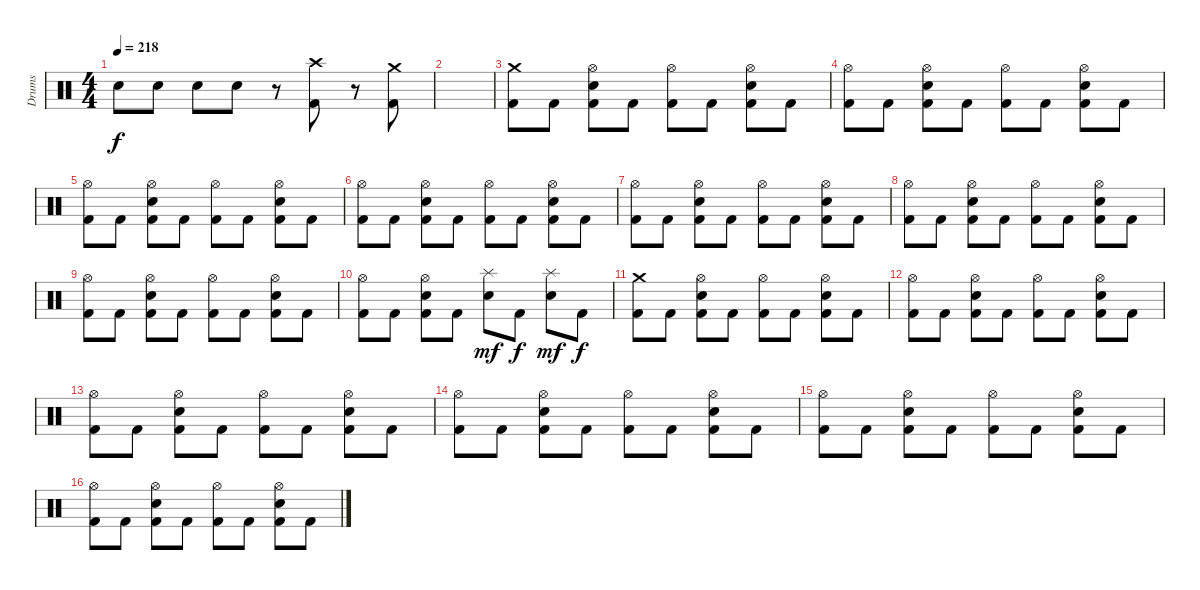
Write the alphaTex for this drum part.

\track ("Drums" "Drums") {instrument percussion}
\staff {score}
\articulation defaults
\ts (4 4)
\tempo 218
\clef neutral
\ks c "Snare (hit) 2".8{dy f} "Snare (hit) 2".8 "Snare (hit) 2".8 "Snare (hit) 2".8
r.8 ("Crash high (hit)" "Kick (hit) 2").8 r.8 ("Crash medium (hit)" "Kick (hit) 2").8 |
|
("Crash medium (hit)" "Kick (hit) 2").8 "Kick (hit) 2".8 ("Hi-Hat (open)" "Snare (hit) 2" "Kick (hit) 2").8 "Kick (hit) 2".8 ("Hi-Hat (open)" "Kick (hit) 2").8 "Kick (hit) 2".8 ("Hi-Hat (open)" "Snare (hit) 2" "Kick (hit) 2").8 "Kick (hit) 2".8 |
("Hi-Hat (open)" "Kick (hit) 2").8 "Kick (hit) 2".8 ("Hi-Hat (open)" "Snare (hit) 2" "Kick (hit) 2").8 "Kick (hit) 2".8 ("Hi-Hat (open)" "Kick (hit) 2").8 "Kick (hit) 2".8 ("Hi-Hat (open)" "Snare (hit) 2" "Kick (hit) 2").8 "Kick (hit) 2".8 |
("Hi-Hat (open)" "Kick (hit) 2").8 "Kick (hit) 2".8 ("Hi-Hat (open)" "Snare (hit) 2" "Kick (hit) 2").8 "Kick (hit) 2".8 ("Hi-Hat (open)" "Kick (hit) 2").8 "Kick (hit) 2".8 ("Hi-Hat (open)" "Snare (hit) 2" "Kick (hit) 2").8 "Kick (hit) 2".8 |
("Hi-Hat (open)" "Kick (hit) 2").8 "Kick (hit) 2".8 ("Hi-Hat (open)" "Snare (hit) 2" "Kick (hit) 2").8 "Kick (hit) 2".8 ("Hi-Hat (open)" "Kick (hit) 2").8 "Kick (hit) 2".8 ("Hi-Hat (open)" "Snare (hit) 2" "Kick (hit) 2").8 "Kick (hit) 2".8 |
("Hi-Hat (open)" "Kick (hit) 2").8 "Kick (hit) 2".8 ("Hi-Hat (open)" "Snare (hit) 2" "Kick (hit) 2").8 "Kick (hit) 2".8 ("Hi-Hat (open)" "Kick (hit) 2").8 "Kick (hit) 2".8 ("Hi-Hat (open)" "Snare (hit) 2" "Kick (hit) 2").8 "Kick (hit) 2".8 |
("Hi-Hat (open)" "Kick (hit) 2").8 "Kick (hit) 2".8 ("Hi-Hat (open)" "Snare (hit) 2" "Kick (hit) 2").8 "Kick (hit) 2".8 ("Hi-Hat (open)" "Kick (hit) 2").8 "Kick (hit) 2".8 ("Hi-Hat (open)" "Snare (hit) 2" "Kick (hit) 2").8 "Kick (hit) 2".8 |
("Hi-Hat (open)" "Kick (hit) 2").8 "Kick (hit) 2".8 ("Hi-Hat (open)" "Snare (hit) 2" "Kick (hit) 2").8 "Kick (hit) 2".8 ("Hi-Hat (open)" "Kick (hit) 2").8 "Kick (hit) 2".8 ("Hi-Hat (open)" "Snare (hit) 2" "Kick (hit) 2").8 "Kick (hit) 2".8 |
("Hi-Hat (open)" "Kick (hit) 2").8 "Kick (hit) 2".8 ("Hi-Hat (open)" "Snare (hit) 2" "Kick (hit) 2").8 "Kick (hit) 2".8 ("Splash (hit)" "Snare (hit) 2").8{dy mf} "Kick (hit) 2".8{dy f} ("Splash (hit)" "Snare (hit) 2").8{dy mf} "Kick (hit) 2".8{dy f} |
("Crash medium (hit)" "Kick (hit) 2").8 "Kick (hit) 2".8 ("Hi-Hat (open)" "Snare (hit) 2" "Kick (hit) 2").8 "Kick (hit) 2".8 ("Hi-Hat (open)" "Kick (hit) 2").8 "Kick (hit) 2".8 ("Hi-Hat (open)" "Snare (hit) 2" "Kick (hit) 2").8 "Kick (hit) 2".8 |
("Hi-Hat (open)" "Kick (hit) 2").8 "Kick (hit) 2".8 ("Hi-Hat (open)" "Snare (hit) 2" "Kick (hit) 2").8 "Kick (hit) 2".8 ("Hi-Hat (open)" "Kick (hit) 2").8 "Kick (hit) 2".8 ("Hi-Hat (open)" "Snare (hit) 2" "Kick (hit) 2").8 "Kick (hit) 2".8 |
("Hi-Hat (open)" "Kick (hit) 2").8 "Kick (hit) 2".8 ("Hi-Hat (open)" "Snare (hit) 2" "Kick (hit) 2").8 "Kick (hit) 2".8 ("Hi-Hat (open)" "Kick (hit) 2").8 "Kick (hit) 2".8 ("Hi-Hat (open)" "Snare (hit) 2" "Kick (hit) 2").8 "Kick (hit) 2".8 |
("Hi-Hat (open)" "Kick (hit) 2").8 "Kick (hit) 2".8 ("Hi-Hat (open)" "Snare (hit) 2" "Kick (hit) 2").8 "Kick (hit) 2".8 ("Hi-Hat (open)" "Kick (hit) 2").8 "Kick (hit) 2".8 ("Hi-Hat (open)" "Snare (hit) 2" "Kick (hit) 2").8 "Kick (hit) 2".8 |
("Hi-Hat (open)" "Kick (hit) 2").8 "Kick (hit) 2".8 ("Hi-Hat (open)" "Snare (hit) 2" "Kick (hit) 2").8 "Kick (hit) 2".8 ("Hi-Hat (open)" "Kick (hit) 2").8 "Kick (hit) 2".8 ("Hi-Hat (open)" "Snare (hit) 2" "Kick (hit) 2").8 "Kick (hit) 2".8 |
("Hi-Hat (open)" "Kick (hit) 2").8 "Kick (hit) 2".8 ("Hi-Hat (open)" "Snare (hit) 2" "Kick (hit) 2").8 "Kick (hit) 2".8 ("Hi-Hat (open)" "Kick (hit) 2").8 "Kick (hit) 2".8 ("Hi-Hat (open)" "Snare (hit) 2" "Kick (hit) 2").8 "Kick (hit) 2".8
